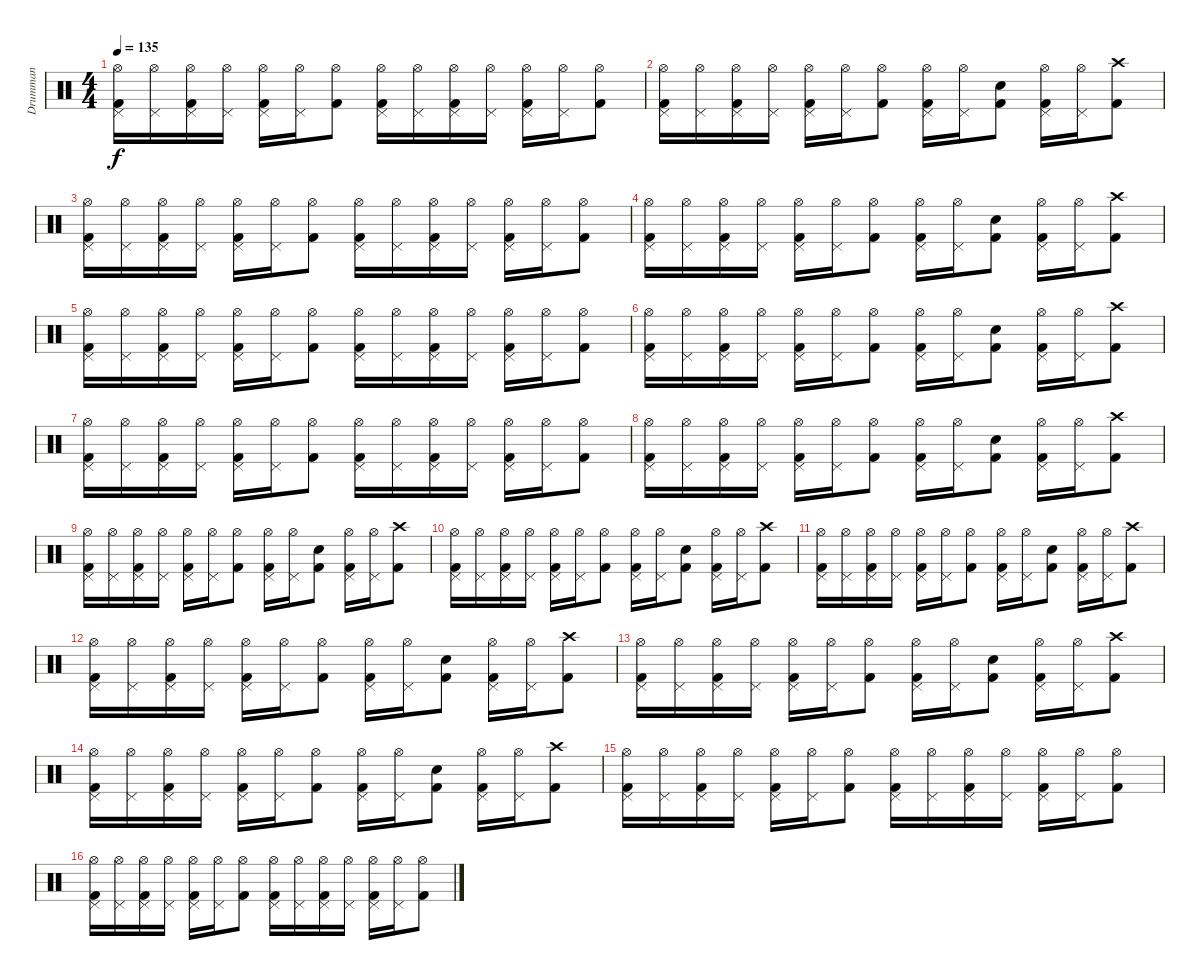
\track ("Drumman" "Drumman") {instrument percussion}
\staff {score}
\articulation defaults
\ts (4 4)
\tempo 135
\clef neutral
\ks c
("Hi-Hat (open)" "Pedal Hi-Hat (hit)" "Kick (hit) 2").16{dy f} ("Hi-Hat (open)" "Pedal Hi-Hat (hit)").16 ("Hi-Hat (open)" "Pedal Hi-Hat (hit)" "Kick (hit) 2").16 ("Hi-Hat (open)" "Pedal Hi-Hat (hit)").16 ("Hi-Hat (open)" "Pedal Hi-Hat (hit)" "Kick (hit) 2").16 ("Hi-Hat (open)" "Pedal Hi-Hat (hit)").16 ("Hi-Hat (open)" "Kick (hit) 2").8 ("Hi-Hat (open)" "Pedal Hi-Hat (hit)" "Kick (hit) 2").16 ("Hi-Hat (open)" "Pedal Hi-Hat (hit)").16 ("Hi-Hat (open)" "Pedal Hi-Hat (hit)" "Kick (hit) 2").16 ("Hi-Hat (open)" "Pedal Hi-Hat (hit)").16 ("Hi-Hat (open)" "Pedal Hi-Hat (hit)" "Kick (hit) 2").16 ("Hi-Hat (open)" "Pedal Hi-Hat (hit)").16 ("Hi-Hat (open)" "Kick (hit) 2").8 |
("Hi-Hat (open)" "Pedal Hi-Hat (hit)" "Kick (hit) 2").16 ("Hi-Hat (open)" "Pedal Hi-Hat (hit)").16 ("Hi-Hat (open)" "Pedal Hi-Hat (hit)" "Kick (hit) 2").16 ("Hi-Hat (open)" "Pedal Hi-Hat (hit)").16 ("Hi-Hat (open)" "Pedal Hi-Hat (hit)" "Kick (hit) 2").16 ("Hi-Hat (open)" "Pedal Hi-Hat (hit)").16 ("Hi-Hat (open)" "Kick (hit) 2").8 ("Hi-Hat (open)" "Pedal Hi-Hat (hit)" "Kick (hit) 2").16 ("Hi-Hat (open)" "Pedal Hi-Hat (hit)").16 ("Snare (hit) 2" "Kick (hit) 2").8 ("Hi-Hat (open)" "Pedal Hi-Hat (hit)" "Kick (hit) 2").16 ("Hi-Hat (open)" "Pedal Hi-Hat (hit)").16 ("Crash high (hit)" "Kick (hit) 2").8 |
("Hi-Hat (open)" "Pedal Hi-Hat (hit)" "Kick (hit) 2").16 ("Hi-Hat (open)" "Pedal Hi-Hat (hit)").16 ("Hi-Hat (open)" "Pedal Hi-Hat (hit)" "Kick (hit) 2").16 ("Hi-Hat (open)" "Pedal Hi-Hat (hit)").16 ("Hi-Hat (open)" "Pedal Hi-Hat (hit)" "Kick (hit) 2").16 ("Hi-Hat (open)" "Pedal Hi-Hat (hit)").16 ("Hi-Hat (open)" "Kick (hit) 2").8 ("Hi-Hat (open)" "Pedal Hi-Hat (hit)" "Kick (hit) 2").16 ("Hi-Hat (open)" "Pedal Hi-Hat (hit)").16 ("Hi-Hat (open)" "Pedal Hi-Hat (hit)" "Kick (hit) 2").16 ("Hi-Hat (open)" "Pedal Hi-Hat (hit)").16 ("Hi-Hat (open)" "Pedal Hi-Hat (hit)" "Kick (hit) 2").16 ("Hi-Hat (open)" "Pedal Hi-Hat (hit)").16 ("Hi-Hat (open)" "Kick (hit) 2").8 |
("Hi-Hat (open)" "Pedal Hi-Hat (hit)" "Kick (hit) 2").16 ("Hi-Hat (open)" "Pedal Hi-Hat (hit)").16 ("Hi-Hat (open)" "Pedal Hi-Hat (hit)" "Kick (hit) 2").16 ("Hi-Hat (open)" "Pedal Hi-Hat (hit)").16 ("Hi-Hat (open)" "Pedal Hi-Hat (hit)" "Kick (hit) 2").16 ("Hi-Hat (open)" "Pedal Hi-Hat (hit)").16 ("Hi-Hat (open)" "Kick (hit) 2").8 ("Hi-Hat (open)" "Pedal Hi-Hat (hit)" "Kick (hit) 2").16 ("Hi-Hat (open)" "Pedal Hi-Hat (hit)").16 ("Snare (hit) 2" "Kick (hit) 2").8 ("Hi-Hat (open)" "Pedal Hi-Hat (hit)" "Kick (hit) 2").16 ("Hi-Hat (open)" "Pedal Hi-Hat (hit)").16 ("Crash high (hit)" "Kick (hit) 2").8 |
("Hi-Hat (open)" "Pedal Hi-Hat (hit)" "Kick (hit) 2").16 ("Hi-Hat (open)" "Pedal Hi-Hat (hit)").16 ("Hi-Hat (open)" "Pedal Hi-Hat (hit)" "Kick (hit) 2").16 ("Hi-Hat (open)" "Pedal Hi-Hat (hit)").16 ("Hi-Hat (open)" "Pedal Hi-Hat (hit)" "Kick (hit) 2").16 ("Hi-Hat (open)" "Pedal Hi-Hat (hit)").16 ("Hi-Hat (open)" "Kick (hit) 2").8 ("Hi-Hat (open)" "Pedal Hi-Hat (hit)" "Kick (hit) 2").16 ("Hi-Hat (open)" "Pedal Hi-Hat (hit)").16 ("Hi-Hat (open)" "Pedal Hi-Hat (hit)" "Kick (hit) 2").16 ("Hi-Hat (open)" "Pedal Hi-Hat (hit)").16 ("Hi-Hat (open)" "Pedal Hi-Hat (hit)" "Kick (hit) 2").16 ("Hi-Hat (open)" "Pedal Hi-Hat (hit)").16 ("Hi-Hat (open)" "Kick (hit) 2").8 |
("Hi-Hat (open)" "Pedal Hi-Hat (hit)" "Kick (hit) 2").16 ("Hi-Hat (open)" "Pedal Hi-Hat (hit)").16 ("Hi-Hat (open)" "Pedal Hi-Hat (hit)" "Kick (hit) 2").16 ("Hi-Hat (open)" "Pedal Hi-Hat (hit)").16 ("Hi-Hat (open)" "Pedal Hi-Hat (hit)" "Kick (hit) 2").16 ("Hi-Hat (open)" "Pedal Hi-Hat (hit)").16 ("Hi-Hat (open)" "Kick (hit) 2").8 ("Hi-Hat (open)" "Pedal Hi-Hat (hit)" "Kick (hit) 2").16 ("Hi-Hat (open)" "Pedal Hi-Hat (hit)").16 ("Snare (hit) 2" "Kick (hit) 2").8 ("Hi-Hat (open)" "Pedal Hi-Hat (hit)" "Kick (hit) 2").16 ("Hi-Hat (open)" "Pedal Hi-Hat (hit)").16 ("Crash high (hit)" "Kick (hit) 2").8 |
("Hi-Hat (open)" "Pedal Hi-Hat (hit)" "Kick (hit) 2").16 ("Hi-Hat (open)" "Pedal Hi-Hat (hit)").16 ("Hi-Hat (open)" "Pedal Hi-Hat (hit)" "Kick (hit) 2").16 ("Hi-Hat (open)" "Pedal Hi-Hat (hit)").16 ("Hi-Hat (open)" "Pedal Hi-Hat (hit)" "Kick (hit) 2").16 ("Hi-Hat (open)" "Pedal Hi-Hat (hit)").16 ("Hi-Hat (open)" "Kick (hit) 2").8 ("Hi-Hat (open)" "Pedal Hi-Hat (hit)" "Kick (hit) 2").16 ("Hi-Hat (open)" "Pedal Hi-Hat (hit)").16 ("Hi-Hat (open)" "Pedal Hi-Hat (hit)" "Kick (hit) 2").16 ("Hi-Hat (open)" "Pedal Hi-Hat (hit)").16 ("Hi-Hat (open)" "Pedal Hi-Hat (hit)" "Kick (hit) 2").16 ("Hi-Hat (open)" "Pedal Hi-Hat (hit)").16 ("Hi-Hat (open)" "Kick (hit) 2").8 |
("Hi-Hat (open)" "Pedal Hi-Hat (hit)" "Kick (hit) 2").16 ("Hi-Hat (open)" "Pedal Hi-Hat (hit)").16 ("Hi-Hat (open)" "Pedal Hi-Hat (hit)" "Kick (hit) 2").16 ("Hi-Hat (open)" "Pedal Hi-Hat (hit)").16 ("Hi-Hat (open)" "Pedal Hi-Hat (hit)" "Kick (hit) 2").16 ("Hi-Hat (open)" "Pedal Hi-Hat (hit)").16 ("Hi-Hat (open)" "Kick (hit) 2").8 ("Hi-Hat (open)" "Pedal Hi-Hat (hit)" "Kick (hit) 2").16 ("Hi-Hat (open)" "Pedal Hi-Hat (hit)").16 ("Snare (hit) 2" "Kick (hit) 2").8 ("Hi-Hat (open)" "Pedal Hi-Hat (hit)" "Kick (hit) 2").16 ("Hi-Hat (open)" "Pedal Hi-Hat (hit)").16 ("Crash high (hit)" "Kick (hit) 2").8 |
("Hi-Hat (open)" "Pedal Hi-Hat (hit)" "Kick (hit) 2").16 ("Hi-Hat (open)" "Pedal Hi-Hat (hit)").16 ("Hi-Hat (open)" "Pedal Hi-Hat (hit)" "Kick (hit) 2").16 ("Hi-Hat (open)" "Pedal Hi-Hat (hit)").16 ("Hi-Hat (open)" "Pedal Hi-Hat (hit)" "Kick (hit) 2").16 ("Hi-Hat (open)" "Pedal Hi-Hat (hit)").16 ("Hi-Hat (open)" "Kick (hit) 2").8 ("Hi-Hat (open)" "Pedal Hi-Hat (hit)" "Kick (hit) 2").16 ("Hi-Hat (open)" "Pedal Hi-Hat (hit)").16 ("Snare (hit) 2" "Kick (hit) 2").8 ("Hi-Hat (open)" "Pedal Hi-Hat (hit)" "Kick (hit) 2").16 ("Hi-Hat (open)" "Pedal Hi-Hat (hit)").16 ("Crash high (hit)" "Kick (hit) 2").8 |
("Hi-Hat (open)" "Pedal Hi-Hat (hit)" "Kick (hit) 2").16 ("Hi-Hat (open)" "Pedal Hi-Hat (hit)").16 ("Hi-Hat (open)" "Pedal Hi-Hat (hit)" "Kick (hit) 2").16 ("Hi-Hat (open)" "Pedal Hi-Hat (hit)").16 ("Hi-Hat (open)" "Pedal Hi-Hat (hit)" "Kick (hit) 2").16 ("Hi-Hat (open)" "Pedal Hi-Hat (hit)").16 ("Hi-Hat (open)" "Kick (hit) 2").8 ("Hi-Hat (open)" "Pedal Hi-Hat (hit)" "Kick (hit) 2").16 ("Hi-Hat (open)" "Pedal Hi-Hat (hit)").16 ("Snare (hit) 2" "Kick (hit) 2").8 ("Hi-Hat (open)" "Pedal Hi-Hat (hit)" "Kick (hit) 2").16 ("Hi-Hat (open)" "Pedal Hi-Hat (hit)").16 ("Crash high (hit)" "Kick (hit) 2").8 |
("Hi-Hat (open)" "Pedal Hi-Hat (hit)" "Kick (hit) 2").16 ("Hi-Hat (open)" "Pedal Hi-Hat (hit)").16 ("Hi-Hat (open)" "Pedal Hi-Hat (hit)" "Kick (hit) 2").16 ("Hi-Hat (open)" "Pedal Hi-Hat (hit)").16 ("Hi-Hat (open)" "Pedal Hi-Hat (hit)" "Kick (hit) 2").16 ("Hi-Hat (open)" "Pedal Hi-Hat (hit)").16 ("Hi-Hat (open)" "Kick (hit) 2").8 ("Hi-Hat (open)" "Pedal Hi-Hat (hit)" "Kick (hit) 2").16 ("Hi-Hat (open)" "Pedal Hi-Hat (hit)").16 ("Snare (hit) 2" "Kick (hit) 2").8 ("Hi-Hat (open)" "Pedal Hi-Hat (hit)" "Kick (hit) 2").16 ("Hi-Hat (open)" "Pedal Hi-Hat (hit)").16 ("Crash high (hit)" "Kick (hit) 2").8 |
("Hi-Hat (open)" "Pedal Hi-Hat (hit)" "Kick (hit) 2").16 ("Hi-Hat (open)" "Pedal Hi-Hat (hit)").16 ("Hi-Hat (open)" "Pedal Hi-Hat (hit)" "Kick (hit) 2").16 ("Hi-Hat (open)" "Pedal Hi-Hat (hit)").16 ("Hi-Hat (open)" "Pedal Hi-Hat (hit)" "Kick (hit) 2").16 ("Hi-Hat (open)" "Pedal Hi-Hat (hit)").16 ("Hi-Hat (open)" "Kick (hit) 2").8 ("Hi-Hat (open)" "Pedal Hi-Hat (hit)" "Kick (hit) 2").16 ("Hi-Hat (open)" "Pedal Hi-Hat (hit)").16 ("Snare (hit) 2" "Kick (hit) 2").8 ("Hi-Hat (open)" "Pedal Hi-Hat (hit)" "Kick (hit) 2").16 ("Hi-Hat (open)" "Pedal Hi-Hat (hit)").16 ("Crash high (hit)" "Kick (hit) 2").8 |
("Hi-Hat (open)" "Pedal Hi-Hat (hit)" "Kick (hit) 2").16 ("Hi-Hat (open)" "Pedal Hi-Hat (hit)").16 ("Hi-Hat (open)" "Pedal Hi-Hat (hit)" "Kick (hit) 2").16 ("Hi-Hat (open)" "Pedal Hi-Hat (hit)").16 ("Hi-Hat (open)" "Pedal Hi-Hat (hit)" "Kick (hit) 2").16 ("Hi-Hat (open)" "Pedal Hi-Hat (hit)").16 ("Hi-Hat (open)" "Kick (hit) 2").8 ("Hi-Hat (open)" "Pedal Hi-Hat (hit)" "Kick (hit) 2").16 ("Hi-Hat (open)" "Pedal Hi-Hat (hit)").16 ("Snare (hit) 2" "Kick (hit) 2").8 ("Hi-Hat (open)" "Pedal Hi-Hat (hit)" "Kick (hit) 2").16 ("Hi-Hat (open)" "Pedal Hi-Hat (hit)").16 ("Crash high (hit)" "Kick (hit) 2").8 |
("Hi-Hat (open)" "Pedal Hi-Hat (hit)" "Kick (hit) 2").16 ("Hi-Hat (open)" "Pedal Hi-Hat (hit)").16 ("Hi-Hat (open)" "Pedal Hi-Hat (hit)" "Kick (hit) 2").16 ("Hi-Hat (open)" "Pedal Hi-Hat (hit)").16 ("Hi-Hat (open)" "Pedal Hi-Hat (hit)" "Kick (hit) 2").16 ("Hi-Hat (open)" "Pedal Hi-Hat (hit)").16 ("Hi-Hat (open)" "Kick (hit) 2").8 ("Hi-Hat (open)" "Pedal Hi-Hat (hit)" "Kick (hit) 2").16 ("Hi-Hat (open)" "Pedal Hi-Hat (hit)").16 ("Snare (hit) 2" "Kick (hit) 2").8 ("Hi-Hat (open)" "Pedal Hi-Hat (hit)" "Kick (hit) 2").16 ("Hi-Hat (open)" "Pedal Hi-Hat (hit)").16 ("Crash high (hit)" "Kick (hit) 2").8 |
("Hi-Hat (open)" "Pedal Hi-Hat (hit)" "Kick (hit) 2").16 ("Hi-Hat (open)" "Pedal Hi-Hat (hit)").16 ("Hi-Hat (open)" "Pedal Hi-Hat (hit)" "Kick (hit) 2").16 ("Hi-Hat (open)" "Pedal Hi-Hat (hit)").16 ("Hi-Hat (open)" "Pedal Hi-Hat (hit)" "Kick (hit) 2").16 ("Hi-Hat (open)" "Pedal Hi-Hat (hit)").16 ("Hi-Hat (open)" "Kick (hit) 2").8 ("Hi-Hat (open)" "Pedal Hi-Hat (hit)" "Kick (hit) 2").16 ("Hi-Hat (open)" "Pedal Hi-Hat (hit)").16 ("Hi-Hat (open)" "Pedal Hi-Hat (hit)" "Kick (hit) 2").16 ("Hi-Hat (open)" "Pedal Hi-Hat (hit)").16 ("Hi-Hat (open)" "Pedal Hi-Hat (hit)" "Kick (hit) 2").16 ("Hi-Hat (open)" "Pedal Hi-Hat (hit)").16 ("Hi-Hat (open)" "Kick (hit) 2").8 |
("Hi-Hat (open)" "Pedal Hi-Hat (hit)" "Kick (hit) 2").16 ("Hi-Hat (open)" "Pedal Hi-Hat (hit)").16 ("Hi-Hat (open)" "Pedal Hi-Hat (hit)" "Kick (hit) 2").16 ("Hi-Hat (open)" "Pedal Hi-Hat (hit)").16 ("Hi-Hat (open)" "Pedal Hi-Hat (hit)" "Kick (hit) 2").16 ("Hi-Hat (open)" "Pedal Hi-Hat (hit)").16 ("Hi-Hat (open)" "Kick (hit) 2").8 ("Hi-Hat (open)" "Pedal Hi-Hat (hit)" "Kick (hit) 2").16 ("Hi-Hat (open)" "Pedal Hi-Hat (hit)").16 ("Hi-Hat (open)" "Pedal Hi-Hat (hit)" "Kick (hit) 2").16 ("Hi-Hat (open)" "Pedal Hi-Hat (hit)").16 ("Hi-Hat (open)" "Pedal Hi-Hat (hit)" "Kick (hit) 2").16 ("Hi-Hat (open)" "Pedal Hi-Hat (hit)").16 ("Hi-Hat (open)" "Kick (hit) 2").8
